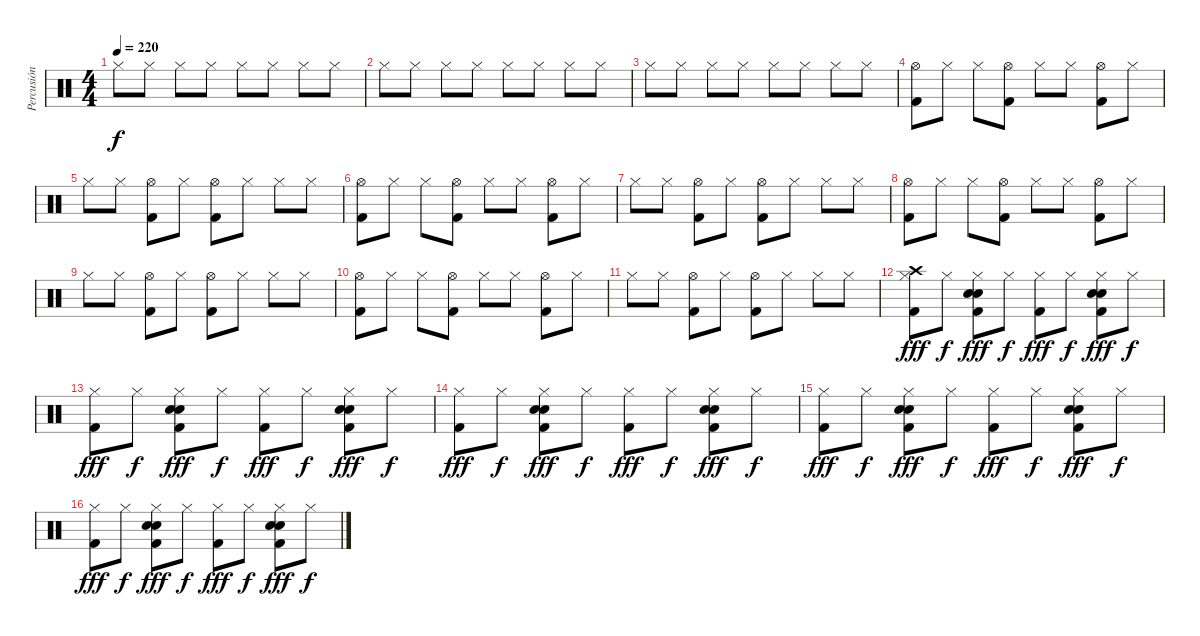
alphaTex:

\track ("Percusión" "Percusión") {instrument percussion}
\staff {score}
\articulation defaults
\ts (4 4)
\tempo 220
\clef neutral
\ks c "Hi-Hat (closed)".8{dy f} "Hi-Hat (closed)".8 "Hi-Hat (closed)".8 "Hi-Hat (closed)".8 "Hi-Hat (closed)".8 "Hi-Hat (closed)".8 "Hi-Hat (closed)".8 "Hi-Hat (closed)".8
|
"Hi-Hat (closed)".8 "Hi-Hat (closed)".8 "Hi-Hat (closed)".8 "Hi-Hat (closed)".8 "Hi-Hat (closed)".8 "Hi-Hat (closed)".8 "Hi-Hat (closed)".8 "Hi-Hat (closed)".8 |
"Hi-Hat (closed)".8 "Hi-Hat (closed)".8 "Hi-Hat (closed)".8 "Hi-Hat (closed)".8 "Hi-Hat (closed)".8 "Hi-Hat (closed)".8 "Hi-Hat (closed)".8 "Hi-Hat (closed)".8 |
("Hi-Hat (open)" "Kick (hit) 2").8 "Hi-Hat (closed)".8 "Hi-Hat (closed)".8 ("Hi-Hat (open)" "Kick (hit) 2").8 "Hi-Hat (closed)".8 "Hi-Hat (closed)".8 ("Hi-Hat (open)" "Kick (hit) 2").8 "Hi-Hat (closed)".8 |
"Hi-Hat (closed)".8 "Hi-Hat (closed)".8 ("Hi-Hat (open)" "Kick (hit) 2").8 "Hi-Hat (closed)".8 ("Hi-Hat (open)" "Kick (hit) 2").8 "Hi-Hat (closed)".8 "Hi-Hat (closed)".8 "Hi-Hat (closed)".8 |
("Hi-Hat (open)" "Kick (hit) 2").8 "Hi-Hat (closed)".8 "Hi-Hat (closed)".8 ("Hi-Hat (open)" "Kick (hit) 2").8 "Hi-Hat (closed)".8 "Hi-Hat (closed)".8 ("Hi-Hat (open)" "Kick (hit) 2").8 "Hi-Hat (closed)".8 |
"Hi-Hat (closed)".8 "Hi-Hat (closed)".8 ("Hi-Hat (open)" "Kick (hit) 2").8 "Hi-Hat (closed)".8 ("Hi-Hat (open)" "Kick (hit) 2").8 "Hi-Hat (closed)".8 "Hi-Hat (closed)".8 "Hi-Hat (closed)".8 |
("Hi-Hat (open)" "Kick (hit) 2").8 "Hi-Hat (closed)".8 "Hi-Hat (closed)".8 ("Hi-Hat (open)" "Kick (hit) 2").8 "Hi-Hat (closed)".8 "Hi-Hat (closed)".8 ("Hi-Hat (open)" "Kick (hit) 2").8 "Hi-Hat (closed)".8 |
"Hi-Hat (closed)".8 "Hi-Hat (closed)".8 ("Hi-Hat (open)" "Kick (hit) 2").8 "Hi-Hat (closed)".8 ("Hi-Hat (open)" "Kick (hit) 2").8 "Hi-Hat (closed)".8 "Hi-Hat (closed)".8 "Hi-Hat (closed)".8 |
("Hi-Hat (open)" "Kick (hit) 2").8 "Hi-Hat (closed)".8 "Hi-Hat (closed)".8 ("Hi-Hat (open)" "Kick (hit) 2").8 "Hi-Hat (closed)".8 "Hi-Hat (closed)".8 ("Hi-Hat (open)" "Kick (hit) 2").8 "Hi-Hat (closed)".8 |
"Hi-Hat (closed)".8 "Hi-Hat (closed)".8 ("Hi-Hat (open)" "Kick (hit) 2").8 "Hi-Hat (closed)".8 ("Hi-Hat (open)" "Kick (hit) 2").8 "Hi-Hat (closed)".8 "Hi-Hat (closed)".8 "Hi-Hat (closed)".8 |
("Crash high (hit)" "Hi-Hat (closed)" "Kick (hit) 2").8{dy fff} "Hi-Hat (closed)".8{dy f} ("Hi-Hat (closed)" "Electric Snare (hit)" "Snare (hit) 2" "Kick (hit) 2").8{dy fff} "Hi-Hat (closed)".8{dy f} ("Hi-Hat (closed)" "Kick (hit) 2").8{dy fff} "Hi-Hat (closed)".8{dy f} ("Hi-Hat (closed)" "Electric Snare (hit)" "Snare (hit) 2" "Kick (hit) 2").8{dy fff} "Hi-Hat (closed)".8{dy f} |
("Hi-Hat (closed)" "Kick (hit) 2").8{dy fff} "Hi-Hat (closed)".8{dy f} ("Hi-Hat (closed)" "Electric Snare (hit)" "Snare (hit) 2" "Kick (hit) 2").8{dy fff} "Hi-Hat (closed)".8{dy f} ("Hi-Hat (closed)" "Kick (hit) 2").8{dy fff} "Hi-Hat (closed)".8{dy f} ("Hi-Hat (closed)" "Electric Snare (hit)" "Snare (hit) 2" "Kick (hit) 2").8{dy fff} "Hi-Hat (closed)".8{dy f} |
("Hi-Hat (closed)" "Kick (hit) 2").8{dy fff} "Hi-Hat (closed)".8{dy f} ("Hi-Hat (closed)" "Electric Snare (hit)" "Snare (hit) 2" "Kick (hit) 2").8{dy fff} "Hi-Hat (closed)".8{dy f} ("Hi-Hat (closed)" "Kick (hit) 2").8{dy fff} "Hi-Hat (closed)".8{dy f} ("Hi-Hat (closed)" "Electric Snare (hit)" "Snare (hit) 2" "Kick (hit) 2").8{dy fff} "Hi-Hat (closed)".8{dy f} |
("Hi-Hat (closed)" "Kick (hit) 2").8{dy fff} "Hi-Hat (closed)".8{dy f} ("Hi-Hat (closed)" "Electric Snare (hit)" "Snare (hit) 2" "Kick (hit) 2").8{dy fff} "Hi-Hat (closed)".8{dy f} ("Hi-Hat (closed)" "Kick (hit) 2").8{dy fff} "Hi-Hat (closed)".8{dy f} ("Hi-Hat (closed)" "Electric Snare (hit)" "Snare (hit) 2" "Kick (hit) 2").8{dy fff} "Hi-Hat (closed)".8{dy f} |
("Hi-Hat (closed)" "Kick (hit) 2").8{dy fff} "Hi-Hat (closed)".8{dy f} ("Hi-Hat (closed)" "Electric Snare (hit)" "Snare (hit) 2" "Kick (hit) 2").8{dy fff} "Hi-Hat (closed)".8{dy f} ("Hi-Hat (closed)" "Kick (hit) 2").8{dy fff} "Hi-Hat (closed)".8{dy f} ("Hi-Hat (closed)" "Electric Snare (hit)" "Snare (hit) 2" "Kick (hit) 2").8{dy fff} "Hi-Hat (closed)".8{dy f}
